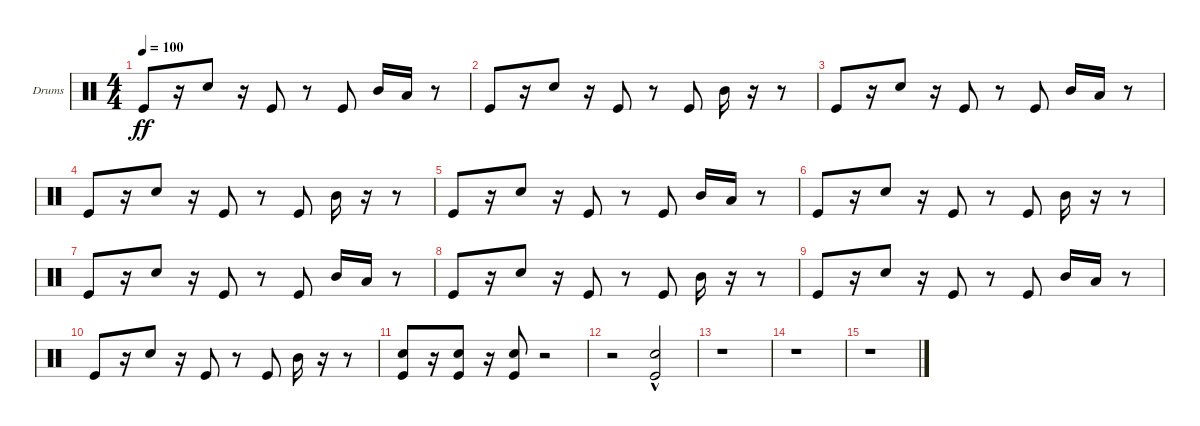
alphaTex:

\defaultSystemsLayout 4
\bracketExtendMode groupsimilarinstruments
\firstSystemTrackNameOrientation horizontal
\otherSystemsTrackNameOrientation horizontal
\track ("Drumkit 1" "Drums") {instrument percussion}
\staff {score}
\articulation defaults
\ts (4 4)
\tempo 100
\clef neutral
\ks c "Kick (hit)".8{dy ff}
r.16 "Snare (hit) 2".8 r.16 "Kick (hit)".8 r.8 "Kick (hit)".8 "Mid Tom (hit)".16 "Low Tom (hit)".16 r.8 |
"Kick (hit)".8 r.16 "Snare (hit) 2".8 r.16 "Kick (hit)".8 r.8 "Kick (hit)".8 "Mid Tom (hit)".16 r.16 r.8 |
"Kick (hit)".8 r.16 "Snare (hit) 2".8 r.16 "Kick (hit)".8 r.8 "Kick (hit)".8 "Mid Tom (hit)".16 "Low Tom (hit)".16 r.8 |
"Kick (hit)".8 r.16 "Snare (hit) 2".8 r.16 "Kick (hit)".8 r.8 "Kick (hit)".8 "Mid Tom (hit)".16 r.16 r.8 |
"Kick (hit)".8 r.16 "Snare (hit) 2".8 r.16 "Kick (hit)".8 r.8 "Kick (hit)".8 "Mid Tom (hit)".16 "Low Tom (hit)".16 r.8 |
"Kick (hit)".8 r.16 "Snare (hit) 2".8 r.16 "Kick (hit)".8 r.8 "Kick (hit)".8 "Mid Tom (hit)".16 r.16 r.8 |
"Kick (hit)".8 r.16 "Snare (hit) 2".8 r.16 "Kick (hit)".8 r.8 "Kick (hit)".8 "Mid Tom (hit)".16 "Low Tom (hit)".16 r.8 |
"Kick (hit)".8 r.16 "Snare (hit) 2".8 r.16 "Kick (hit)".8 r.8 "Kick (hit)".8 "Mid Tom (hit)".16 r.16 r.8 |
"Kick (hit)".8 r.16 "Snare (hit) 2".8 r.16 "Kick (hit)".8 r.8 "Kick (hit)".8 "Mid Tom (hit)".16 "Low Tom (hit)".16 r.8 |
"Kick (hit)".8 r.16 "Snare (hit) 2".8 r.16 "Kick (hit)".8 r.8 "Kick (hit)".8 "Mid Tom (hit)".16 r.16 r.8 |
("Kick (hit)" "Snare (hit) 2").8 r.16 ("Kick (hit)" "Snare (hit) 2").8 r.16 ("Kick (hit)" "Snare (hit) 2").8 r.2 |
r.2 ("Kick (hit)"{hac} "Snare (hit) 2").2 |
r.1 |
r.1 |
r.1
